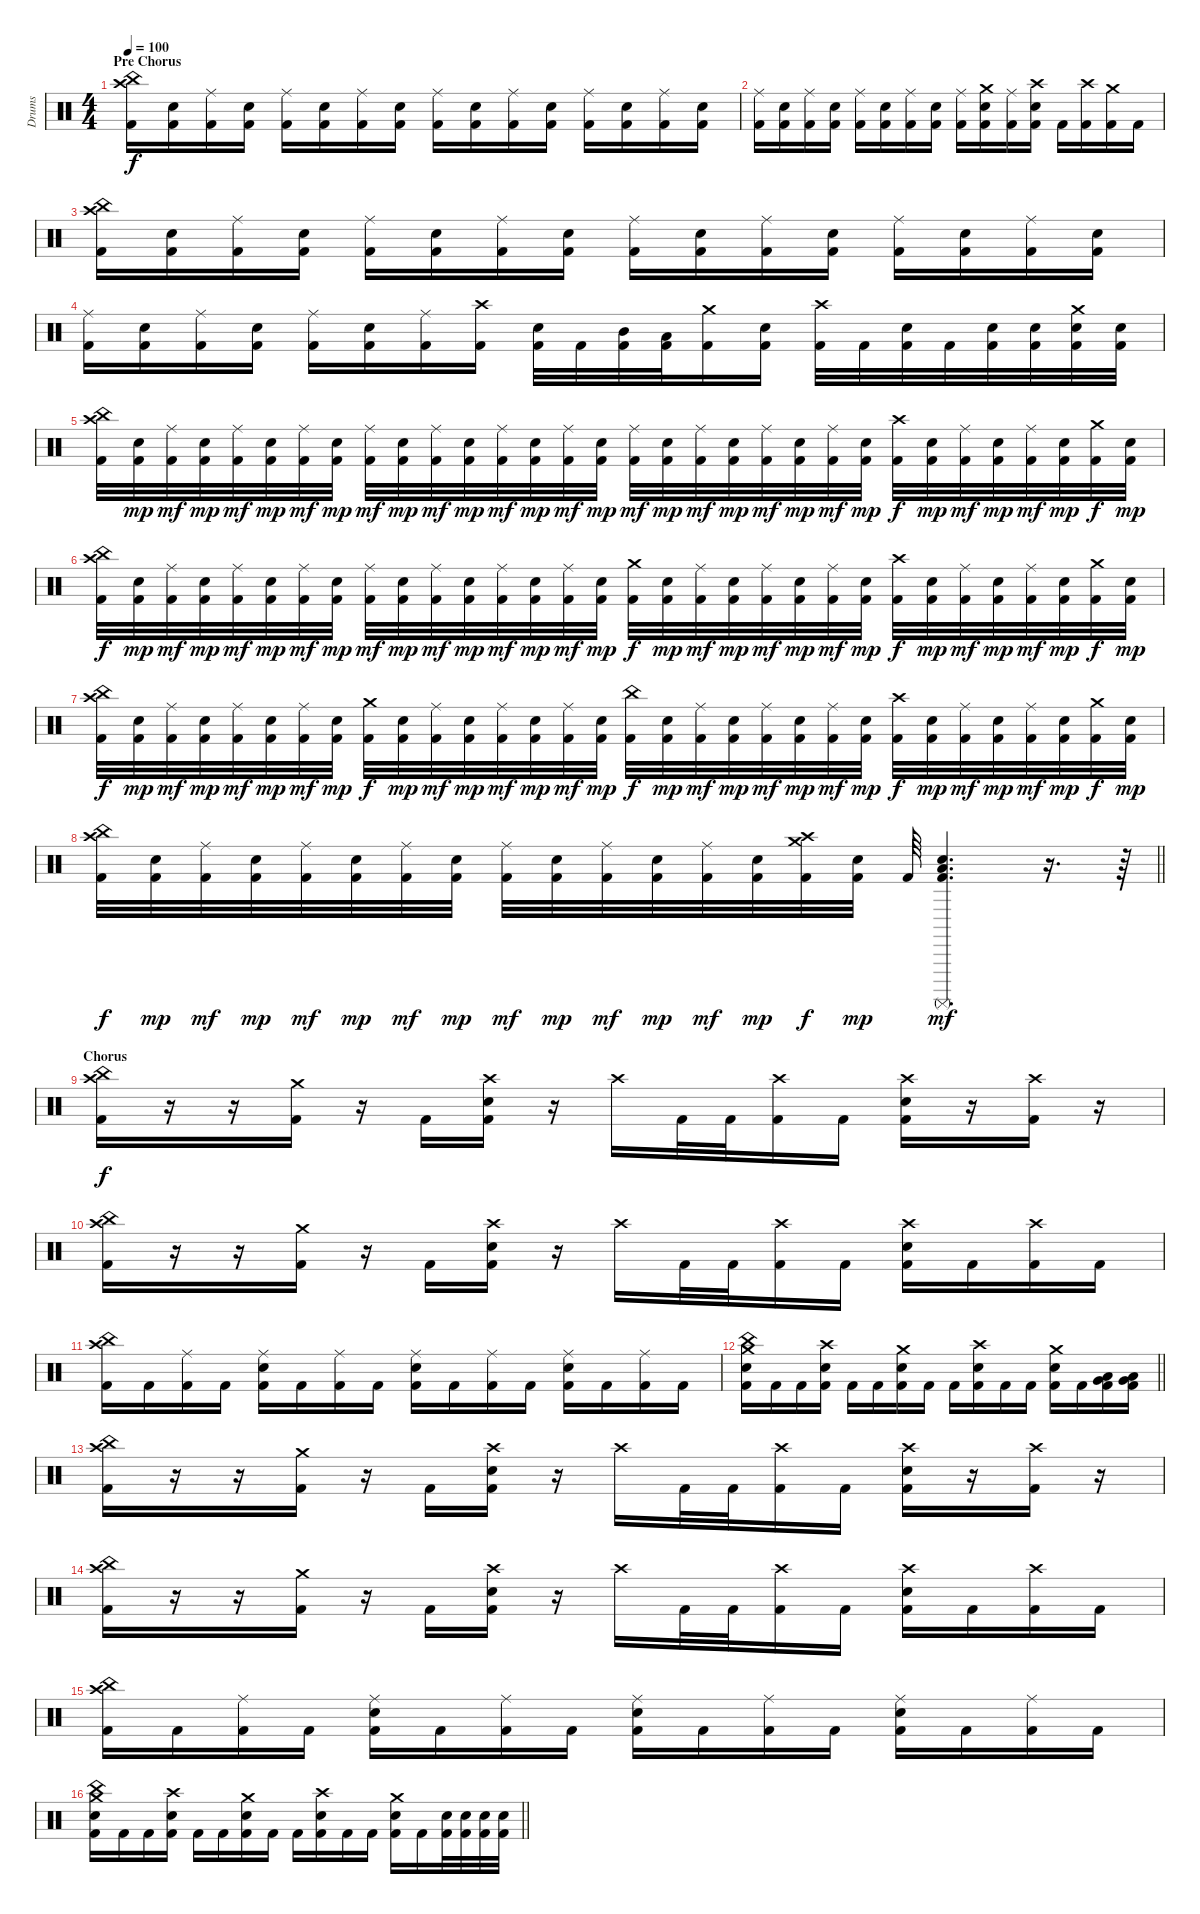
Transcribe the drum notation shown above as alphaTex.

\track ("Drums" "Drums") {instrument percussion}
\staff {score}
\articulation defaults
\ts (4 4)
\section ("" "Pre Chorus")
\tempo 100
\clef neutral
\ks c
("China (hit)" "Crash high (hit)" "Kick (hit) 2").16{dy f} ("Electric Snare (hit)" "Kick (hit) 2").16 ("Ride (middle)" "Kick (hit) 2").16 ("Electric Snare (hit)" "Kick (hit) 2").16 ("Ride (middle)" "Kick (hit) 2").16 ("Electric Snare (hit)" "Kick (hit) 2").16 ("Ride (middle)" "Kick (hit) 2").16 ("Electric Snare (hit)" "Kick (hit) 2").16 ("Ride (middle)" "Kick (hit) 2").16 ("Electric Snare (hit)" "Kick (hit) 2").16 ("Ride (middle)" "Kick (hit) 2").16 ("Electric Snare (hit)" "Kick (hit) 2").16 ("Ride (middle)" "Kick (hit) 2").16 ("Electric Snare (hit)" "Kick (hit) 2").16 ("Ride (middle)" "Kick (hit) 2").16 ("Electric Snare (hit)" "Kick (hit) 2").16 |
("Ride (middle)" "Kick (hit) 2").16 ("Electric Snare (hit)" "Kick (hit) 2").16 ("Ride (middle)" "Kick (hit) 2").16 ("Electric Snare (hit)" "Kick (hit) 2").16 ("Ride (middle)" "Kick (hit) 2").16 ("Electric Snare (hit)" "Kick (hit) 2").16 ("Ride (middle)" "Kick (hit) 2").16 ("Electric Snare (hit)" "Kick (hit) 2").16 ("Ride (middle)" "Kick (hit) 2").16 ("Crash medium (hit)" "Electric Snare (hit)" "Kick (hit) 2").16 ("Ride (middle)" "Kick (hit) 2").16 ("Crash high (hit)" "Electric Snare (hit)" "Kick (hit) 2").16 "Kick (hit) 2".16 ("Crash high (hit)" "Kick (hit) 2").16 ("Crash medium (hit)" "Kick (hit) 2").16 "Kick (hit) 2".16 |
("China (hit)" "Crash high (hit)" "Kick (hit) 2").16 ("Electric Snare (hit)" "Kick (hit) 2").16 ("Ride (middle)" "Kick (hit) 2").16 ("Electric Snare (hit)" "Kick (hit) 2").16 ("Ride (middle)" "Kick (hit) 2").16 ("Electric Snare (hit)" "Kick (hit) 2").16 ("Ride (middle)" "Kick (hit) 2").16 ("Electric Snare (hit)" "Kick (hit) 2").16 ("Ride (middle)" "Kick (hit) 2").16 ("Electric Snare (hit)" "Kick (hit) 2").16 ("Ride (middle)" "Kick (hit) 2").16 ("Electric Snare (hit)" "Kick (hit) 2").16 ("Ride (middle)" "Kick (hit) 2").16 ("Electric Snare (hit)" "Kick (hit) 2").16 ("Ride (middle)" "Kick (hit) 2").16 ("Electric Snare (hit)" "Kick (hit) 2").16 |
("Ride (middle)" "Kick (hit) 2").16 ("Electric Snare (hit)" "Kick (hit) 2").16 ("Ride (middle)" "Kick (hit) 2").16 ("Electric Snare (hit)" "Kick (hit) 2").16 ("Ride (middle)" "Kick (hit) 2").16 ("Electric Snare (hit)" "Kick (hit) 2").16 ("Ride (middle)" "Kick (hit) 2").16 ("Crash high (hit)" "Kick (hit) 2").16 ("Electric Snare (hit)" "Kick (hit) 2").32 "Kick (hit) 2".32 ("Mid Tom (hit)" "Kick (hit) 2").32 ("Low Tom (hit)" "Kick (hit) 2").32 ("Crash medium (hit)" "Kick (hit) 2").16 ("Electric Snare (hit)" "Kick (hit) 2").16 ("Crash high (hit)" "Kick (hit) 2").32 "Kick (hit) 2".32 ("Electric Snare (hit)" "Kick (hit) 2").32 "Kick (hit) 2".32 ("Electric Snare (hit)" "Kick (hit) 2").32 ("Electric Snare (hit)" "Kick (hit) 2").32 ("Crash medium (hit)" "Electric Snare (hit)" "Kick (hit) 2").32 ("Electric Snare (hit)" "Kick (hit) 2").32 |
("China (hit)" "Crash high (hit)" "Kick (hit) 2").32 ("Electric Snare (hit)" "Kick (hit) 2").32{dy mp} ("Ride (middle)" "Kick (hit) 2").32{dy mf} ("Electric Snare (hit)" "Kick (hit) 2").32{dy mp} ("Ride (middle)" "Kick (hit) 2").32{dy mf} ("Electric Snare (hit)" "Kick (hit) 2").32{dy mp} ("Ride (middle)" "Kick (hit) 2").32{dy mf} ("Electric Snare (hit)" "Kick (hit) 2").32{dy mp} ("Ride (middle)" "Kick (hit) 2").32{dy mf} ("Electric Snare (hit)" "Kick (hit) 2").32{dy mp} ("Ride (middle)" "Kick (hit) 2").32{dy mf} ("Electric Snare (hit)" "Kick (hit) 2").32{dy mp} ("Ride (middle)" "Kick (hit) 2").32{dy mf} ("Electric Snare (hit)" "Kick (hit) 2").32{dy mp} ("Ride (middle)" "Kick (hit) 2").32{dy mf} ("Electric Snare (hit)" "Kick (hit) 2").32{dy mp} ("Ride (middle)" "Kick (hit) 2").32{dy mf} ("Electric Snare (hit)" "Kick (hit) 2").32{dy mp} ("Ride (middle)" "Kick (hit) 2").32{dy mf} ("Electric Snare (hit)" "Kick (hit) 2").32{dy mp} ("Ride (middle)" "Kick (hit) 2").32{dy mf} ("Electric Snare (hit)" "Kick (hit) 2").32{dy mp} ("Ride (middle)" "Kick (hit) 2").32{dy mf} ("Electric Snare (hit)" "Kick (hit) 2").32{dy mp} ("Crash high (hit)" "Kick (hit) 2").32{dy f} ("Electric Snare (hit)" "Kick (hit) 2").32{dy mp} ("Ride (middle)" "Kick (hit) 2").32{dy mf} ("Electric Snare (hit)" "Kick (hit) 2").32{dy mp} ("Ride (middle)" "Kick (hit) 2").32{dy mf} ("Electric Snare (hit)" "Kick (hit) 2").32{dy mp} ("Crash medium (hit)" "Kick (hit) 2").32{dy f} ("Electric Snare (hit)" "Kick (hit) 2").32{dy mp} |
("China (hit)" "Crash high (hit)" "Kick (hit) 2").32{dy f} ("Electric Snare (hit)" "Kick (hit) 2").32{dy mp} ("Ride (middle)" "Kick (hit) 2").32{dy mf} ("Electric Snare (hit)" "Kick (hit) 2").32{dy mp} ("Ride (middle)" "Kick (hit) 2").32{dy mf} ("Electric Snare (hit)" "Kick (hit) 2").32{dy mp} ("Ride (middle)" "Kick (hit) 2").32{dy mf} ("Electric Snare (hit)" "Kick (hit) 2").32{dy mp} ("Ride (middle)" "Kick (hit) 2").32{dy mf} ("Electric Snare (hit)" "Kick (hit) 2").32{dy mp} ("Ride (middle)" "Kick (hit) 2").32{dy mf} ("Electric Snare (hit)" "Kick (hit) 2").32{dy mp} ("Ride (middle)" "Kick (hit) 2").32{dy mf} ("Electric Snare (hit)" "Kick (hit) 2").32{dy mp} ("Ride (middle)" "Kick (hit) 2").32{dy mf} ("Electric Snare (hit)" "Kick (hit) 2").32{dy mp} ("Crash medium (hit)" "Kick (hit) 2").32{dy f} ("Electric Snare (hit)" "Kick (hit) 2").32{dy mp} ("Ride (middle)" "Kick (hit) 2").32{dy mf} ("Electric Snare (hit)" "Kick (hit) 2").32{dy mp} ("Ride (middle)" "Kick (hit) 2").32{dy mf} ("Electric Snare (hit)" "Kick (hit) 2").32{dy mp} ("Ride (middle)" "Kick (hit) 2").32{dy mf} ("Electric Snare (hit)" "Kick (hit) 2").32{dy mp} ("Crash high (hit)" "Kick (hit) 2").32{dy f} ("Electric Snare (hit)" "Kick (hit) 2").32{dy mp} ("Ride (middle)" "Kick (hit) 2").32{dy mf} ("Electric Snare (hit)" "Kick (hit) 2").32{dy mp} ("Ride (middle)" "Kick (hit) 2").32{dy mf} ("Electric Snare (hit)" "Kick (hit) 2").32{dy mp} ("Crash medium (hit)" "Kick (hit) 2").32{dy f} ("Electric Snare (hit)" "Kick (hit) 2").32{dy mp} |
("China (hit)" "Crash high (hit)" "Kick (hit) 2").32{dy f} ("Electric Snare (hit)" "Kick (hit) 2").32{dy mp} ("Ride (middle)" "Kick (hit) 2").32{dy mf} ("Electric Snare (hit)" "Kick (hit) 2").32{dy mp} ("Ride (middle)" "Kick (hit) 2").32{dy mf} ("Electric Snare (hit)" "Kick (hit) 2").32{dy mp} ("Ride (middle)" "Kick (hit) 2").32{dy mf} ("Electric Snare (hit)" "Kick (hit) 2").32{dy mp} ("Crash medium (hit)" "Kick (hit) 2").32{dy f} ("Electric Snare (hit)" "Kick (hit) 2").32{dy mp} ("Ride (middle)" "Kick (hit) 2").32{dy mf} ("Electric Snare (hit)" "Kick (hit) 2").32{dy mp} ("Ride (middle)" "Kick (hit) 2").32{dy mf} ("Electric Snare (hit)" "Kick (hit) 2").32{dy mp} ("Ride (middle)" "Kick (hit) 2").32{dy mf} ("Electric Snare (hit)" "Kick (hit) 2").32{dy mp} ("China (hit)" "Kick (hit) 2").32{dy f} ("Electric Snare (hit)" "Kick (hit) 2").32{dy mp} ("Ride (middle)" "Kick (hit) 2").32{dy mf} ("Electric Snare (hit)" "Kick (hit) 2").32{dy mp} ("Ride (middle)" "Kick (hit) 2").32{dy mf} ("Electric Snare (hit)" "Kick (hit) 2").32{dy mp} ("Ride (middle)" "Kick (hit) 2").32{dy mf} ("Electric Snare (hit)" "Kick (hit) 2").32{dy mp} ("Crash high (hit)" "Kick (hit) 2").32{dy f} ("Electric Snare (hit)" "Kick (hit) 2").32{dy mp} ("Ride (middle)" "Kick (hit) 2").32{dy mf} ("Electric Snare (hit)" "Kick (hit) 2").32{dy mp} ("Ride (middle)" "Kick (hit) 2").32{dy mf} ("Electric Snare (hit)" "Kick (hit) 2").32{dy mp} ("Crash medium (hit)" "Kick (hit) 2").32{dy f} ("Electric Snare (hit)" "Kick (hit) 2").32{dy mp} |
\barLineRight lightlight
("China (hit)" "Crash high (hit)" "Kick (hit) 2").32{dy f} ("Electric Snare (hit)" "Kick (hit) 2").32{dy mp} ("Ride (middle)" "Kick (hit) 2").32{dy mf} ("Electric Snare (hit)" "Kick (hit) 2").32{dy mp} ("Ride (middle)" "Kick (hit) 2").32{dy mf} ("Electric Snare (hit)" "Kick (hit) 2").32{dy mp} ("Ride (middle)" "Kick (hit) 2").32{dy mf} ("Electric Snare (hit)" "Kick (hit) 2").32{dy mp} ("Ride (middle)" "Kick (hit) 2").32{dy mf} ("Electric Snare (hit)" "Kick (hit) 2").32{dy mp} ("Ride (middle)" "Kick (hit) 2").32{dy mf} ("Electric Snare (hit)" "Kick (hit) 2").32{dy mp} ("Ride (middle)" "Kick (hit) 2").32{dy mf} ("Electric Snare (hit)" "Kick (hit) 2").32{dy mp} ("Crash medium (hit)" "Crash high (hit)" "Kick (hit) 2").32{dy f} ("Electric Snare (hit)" "Kick (hit) 2").32{dy mp} "Kick (hit) 2".64 ("Low Floor Tom (hit)" "Surdo (mute)" "Electric Snare (hit)" "Kick (hit) 2").4{d dy mf} r.16{d} r.64 |
\section ("" "Chorus")
("China (hit)" "Crash high (hit)" "Kick (hit) 2").16{dy f} r.16 r.16 ("Crash medium (hit)" "Kick (hit) 2").16 r.16 "Kick (hit) 2".16 ("Crash high (hit)" "Electric Snare (hit)" "Kick (hit) 2").16 r.16 "Crash high (hit)".16 "Kick (hit) 2".32 "Kick (hit) 2".32 ("Crash high (hit)" "Kick (hit) 2").16 "Kick (hit) 2".16 ("Crash high (hit)" "Electric Snare (hit)" "Kick (hit) 2").16 r.16 ("Crash high (hit)" "Kick (hit) 2").16 r.16 |
("China (hit)" "Crash high (hit)" "Kick (hit) 2").16 r.16 r.16 ("Crash medium (hit)" "Kick (hit) 2").16 r.16 "Kick (hit) 2".16 ("Crash high (hit)" "Electric Snare (hit)" "Kick (hit) 2").16 r.16 "Crash high (hit)".16 "Kick (hit) 2".32 "Kick (hit) 2".32 ("Crash high (hit)" "Kick (hit) 2").16 "Kick (hit) 2".16 ("Crash high (hit)" "Electric Snare (hit)" "Kick (hit) 2").16 "Kick (hit) 2".16 ("Crash high (hit)" "Kick (hit) 2").16 "Kick (hit) 2".16 |
("China (hit)" "Crash high (hit)" "Kick (hit) 2").16 "Kick (hit) 2".16 ("Ride (middle)" "Kick (hit) 2").16 "Kick (hit) 2".16 ("Ride (middle)" "Electric Snare (hit)" "Kick (hit) 2").16 "Kick (hit) 2".16 ("Ride (middle)" "Kick (hit) 2").16 "Kick (hit) 2".16 ("Ride (middle)" "Electric Snare (hit)" "Kick (hit) 2").16 "Kick (hit) 2".16 ("Ride (middle)" "Kick (hit) 2").16 "Kick (hit) 2".16 ("Ride (middle)" "Electric Snare (hit)" "Kick (hit) 2").16 "Kick (hit) 2".16 ("Ride (middle)" "Kick (hit) 2").16 "Kick (hit) 2".16 |
\barLineRight lightlight
("China (hit)" "Crash medium (hit)" "Electric Snare (hit)" "Kick (hit) 2").16 "Kick (hit) 2".16 "Kick (hit) 2".16 ("Crash high (hit)" "Electric Snare (hit)" "Kick (hit) 2").16 "Kick (hit) 2".16 "Kick (hit) 2".16 ("Crash medium (hit)" "Electric Snare (hit)" "Kick (hit) 2").16 "Kick (hit) 2".16 "Kick (hit) 2".16 ("Crash high (hit)" "Electric Snare (hit)" "Kick (hit) 2").16 "Kick (hit) 2".16 "Kick (hit) 2".16 ("Crash medium (hit)" "Electric Snare (hit)" "Kick (hit) 2").16 "Kick (hit) 2".16 ("Very Low Tom (hit)" "Low Tom (hit)" "Kick (hit) 2").16 ("Low Floor Tom (hit)" "Very Low Tom (hit)" "Kick (hit) 2").16 |
("China (hit)" "Crash high (hit)" "Kick (hit) 2").16 r.16 r.16 ("Crash medium (hit)" "Kick (hit) 2").16 r.16 "Kick (hit) 2".16 ("Crash high (hit)" "Electric Snare (hit)" "Kick (hit) 2").16 r.16 "Crash high (hit)".16 "Kick (hit) 2".32 "Kick (hit) 2".32 ("Crash high (hit)" "Kick (hit) 2").16 "Kick (hit) 2".16 ("Crash high (hit)" "Electric Snare (hit)" "Kick (hit) 2").16 r.16 ("Crash high (hit)" "Kick (hit) 2").16 r.16 |
("China (hit)" "Crash high (hit)" "Kick (hit) 2").16 r.16 r.16 ("Crash medium (hit)" "Kick (hit) 2").16 r.16 "Kick (hit) 2".16 ("Crash high (hit)" "Electric Snare (hit)" "Kick (hit) 2").16 r.16 "Crash high (hit)".16 "Kick (hit) 2".32 "Kick (hit) 2".32 ("Crash high (hit)" "Kick (hit) 2").16 "Kick (hit) 2".16 ("Crash high (hit)" "Electric Snare (hit)" "Kick (hit) 2").16 "Kick (hit) 2".16 ("Crash high (hit)" "Kick (hit) 2").16 "Kick (hit) 2".16 |
("China (hit)" "Crash high (hit)" "Kick (hit) 2").16 "Kick (hit) 2".16 ("Ride (middle)" "Kick (hit) 2").16 "Kick (hit) 2".16 ("Ride (middle)" "Electric Snare (hit)" "Kick (hit) 2").16 "Kick (hit) 2".16 ("Ride (middle)" "Kick (hit) 2").16 "Kick (hit) 2".16 ("Ride (middle)" "Electric Snare (hit)" "Kick (hit) 2").16 "Kick (hit) 2".16 ("Ride (middle)" "Kick (hit) 2").16 "Kick (hit) 2".16 ("Ride (middle)" "Electric Snare (hit)" "Kick (hit) 2").16 "Kick (hit) 2".16 ("Ride (middle)" "Kick (hit) 2").16 "Kick (hit) 2".16 |
\barLineRight lightlight
("China (hit)" "Crash medium (hit)" "Electric Snare (hit)" "Kick (hit) 2").16 "Kick (hit) 2".16 "Kick (hit) 2".16 ("Crash high (hit)" "Electric Snare (hit)" "Kick (hit) 2").16 "Kick (hit) 2".16 "Kick (hit) 2".16 ("Crash medium (hit)" "Electric Snare (hit)" "Kick (hit) 2").16 "Kick (hit) 2".16 "Kick (hit) 2".16 ("Crash high (hit)" "Electric Snare (hit)" "Kick (hit) 2").16 "Kick (hit) 2".16 "Kick (hit) 2".16 ("Crash medium (hit)" "Electric Snare (hit)" "Kick (hit) 2").16 "Kick (hit) 2".16 ("Electric Snare (hit)" "Kick (hit) 2").32 ("Electric Snare (hit)" "Kick (hit) 2").32 ("Electric Snare (hit)" "Kick (hit) 2").32 ("Electric Snare (hit)" "Kick (hit) 2").32
